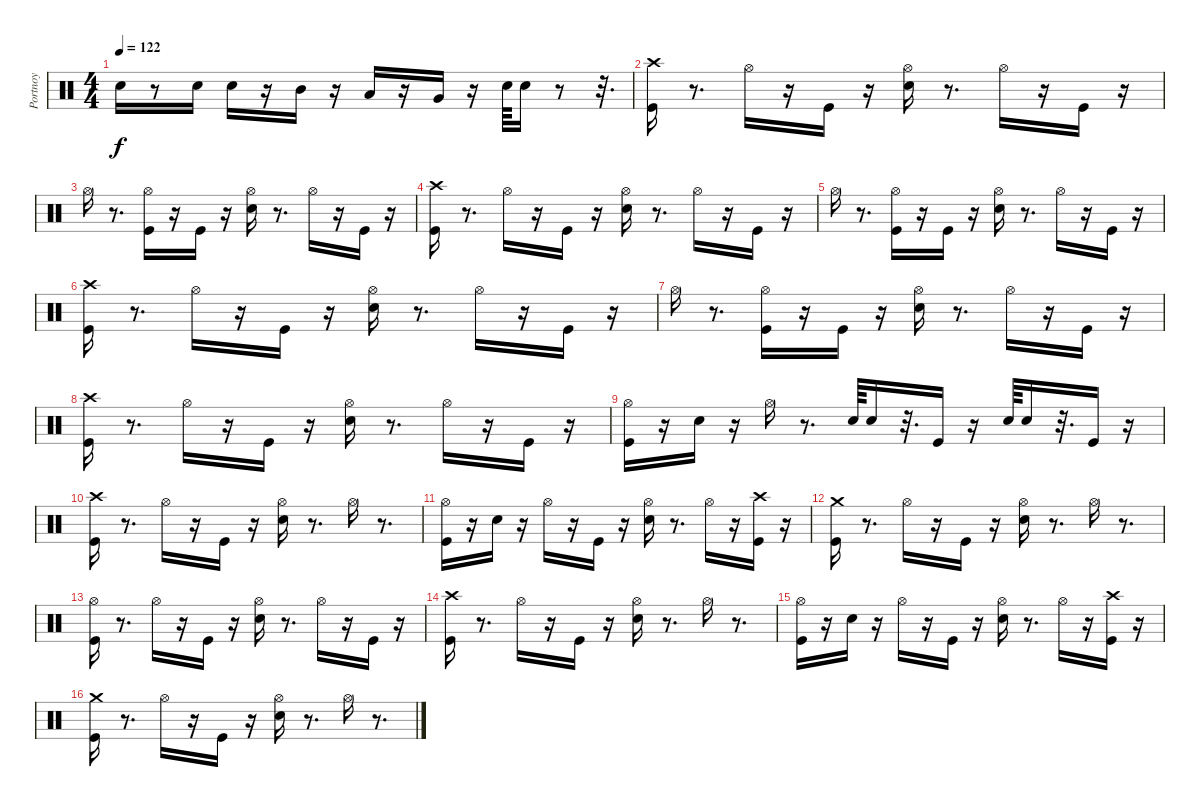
\track ("Portnoy" "Portnoy") {instrument percussion}
\staff {score}
\articulation defaults
\ts (4 4)
\tempo 122
\clef neutral
\ks c "Metronome (bell)".16{dy f}
r.8 "Metronome (bell)".16 "Metronome (bell)".16 r.16 "Mid Tom (hit)".16 r.16 "Low Tom (hit)".16 r.16 "Very Low Tom (hit)".16 r.16 "Metronome (bell)".64 "Metronome (bell)".16 r.8 r.32{d} |
("Crash high (hit)" "Kick (hit)").16 r.8{d} "Hi-Hat (open)".16 r.16 "Kick (hit)".16 r.16 ("Metronome (bell)" "Hi-Hat (open)").16 r.8{d} "Hi-Hat (open)".16 r.16 "Kick (hit)".16 r.16 |
"Hi-Hat (open)".16 r.8{d} ("Kick (hit)" "Hi-Hat (open)").16 r.16 "Kick (hit)".16 r.16 ("Metronome (bell)" "Hi-Hat (open)").16 r.8{d} "Hi-Hat (open)".16 r.16 "Kick (hit)".16 r.16 |
("Crash high (hit)" "Kick (hit)").16 r.8{d} "Hi-Hat (open)".16 r.16 "Kick (hit)".16 r.16 ("Metronome (bell)" "Hi-Hat (open)").16 r.8{d} "Hi-Hat (open)".16 r.16 "Kick (hit)".16 r.16 |
"Hi-Hat (open)".16 r.8{d} ("Kick (hit)" "Hi-Hat (open)").16 r.16 "Kick (hit)".16 r.16 ("Metronome (bell)" "Hi-Hat (open)").16 r.8{d} "Hi-Hat (open)".16 r.16 "Kick (hit)".16 r.16 |
("Crash high (hit)" "Kick (hit)").16 r.8{d} "Hi-Hat (open)".16 r.16 "Kick (hit)".16 r.16 ("Metronome (bell)" "Hi-Hat (open)").16 r.8{d} "Hi-Hat (open)".16 r.16 "Kick (hit)".16 r.16 |
"Hi-Hat (open)".16 r.8{d} ("Kick (hit)" "Hi-Hat (open)").16 r.16 "Kick (hit)".16 r.16 ("Metronome (bell)" "Hi-Hat (open)").16 r.8{d} "Hi-Hat (open)".16 r.16 "Kick (hit)".16 r.16 |
("Crash high (hit)" "Kick (hit)").16 r.8{d} "Hi-Hat (open)".16 r.16 "Kick (hit)".16 r.16 ("Metronome (bell)" "Hi-Hat (open)").16 r.8{d} "Hi-Hat (open)".16 r.16 "Kick (hit)".16 r.16 |
("Hi-Hat (open)" "Kick (hit)").16 r.16 "Metronome (bell)".16 r.16 "Hi-Hat (open)".16 r.8{d} "Metronome (bell)".64 "Metronome (bell)".16 r.32{d} "Kick (hit)".16 r.16 "Metronome (bell)".64 "Metronome (bell)".16 r.32{d} "Kick (hit)".16 r.16 |
("Crash high (hit)" "Kick (hit)").16 r.8{d} "Hi-Hat (open)".16 r.16 "Kick (hit)".16 r.16 ("Metronome (bell)" "Hi-Hat (open)").16 r.8{d} "Hi-Hat (open)".16 r.8{d} |
("Kick (hit)" "Hi-Hat (open)").16 r.16 "Metronome (bell)".16 r.16 "Hi-Hat (open)".16 r.16 "Kick (hit)".16 r.16 ("Metronome (bell)" "Hi-Hat (open)").16 r.8{d} "Hi-Hat (open)".16 r.16 ("Crash high (hit)" "Kick (hit)").16 r.16 |
("Kick (hit)" "Crash medium (hit)").16 r.8{d} "Hi-Hat (open)".16 r.16 "Kick (hit)".16 r.16 ("Metronome (bell)" "Hi-Hat (open)").16 r.8{d} "Hi-Hat (open)".16 r.8{d} |
("Kick (hit)" "Hi-Hat (open)").16 r.8{d} "Hi-Hat (open)".16 r.16 "Kick (hit)".16 r.16 ("Metronome (bell)" "Hi-Hat (open)").16 r.8{d} "Hi-Hat (open)".16 r.16 "Kick (hit)".16 r.16 |
("Crash high (hit)" "Kick (hit)").16 r.8{d} "Hi-Hat (open)".16 r.16 "Kick (hit)".16 r.16 ("Metronome (bell)" "Hi-Hat (open)").16 r.8{d} "Hi-Hat (open)".16 r.8{d} |
("Kick (hit)" "Hi-Hat (open)").16 r.16 "Metronome (bell)".16 r.16 "Hi-Hat (open)".16 r.16 "Kick (hit)".16 r.16 ("Metronome (bell)" "Hi-Hat (open)").16 r.8{d} "Hi-Hat (open)".16 r.16 ("Crash high (hit)" "Kick (hit)").16 r.16 |
("Kick (hit)" "Crash medium (hit)").16 r.8{d} "Hi-Hat (open)".16 r.16 "Kick (hit)".16 r.16 ("Metronome (bell)" "Hi-Hat (open)").16 r.8{d} "Hi-Hat (open)".16 r.8{d}
